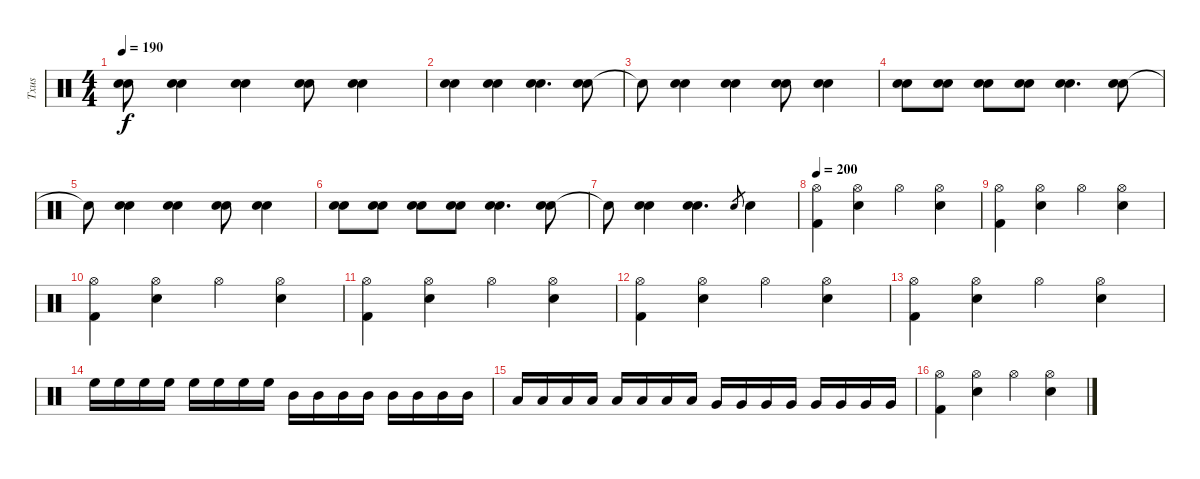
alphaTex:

\track ("Txus" "Txus") {instrument percussion}
\staff
\articulation defaults
\ts (4 4)
\tempo 190
\clef neutral
\ks c
("Snare (hit)"{t} "Snare (hit) 2"{t}).8{dy f} ("Snare (hit) 2" "Snare (hit) 2").4 ("Snare (hit) 2" "Snare (hit) 2").4 ("Snare (hit) 2" "Snare (hit) 2").8 ("Snare (hit) 2" "Snare (hit) 2").4 |
("Snare (hit) 2" "Snare (hit) 2").4 ("Snare (hit) 2" "Snare (hit) 2").4 ("Snare (hit) 2" "Snare (hit) 2").4{d} ("Snare (hit) 2" "Snare (hit) 2").8 |
"Snare (hit) 2"{t}.8 ("Snare (hit) 2" "Snare (hit) 2").4 ("Snare (hit) 2" "Snare (hit) 2").4 ("Snare (hit) 2" "Snare (hit) 2").8 ("Snare (hit) 2" "Snare (hit) 2").4 |
("Snare (hit) 2" "Snare (hit) 2").8 ("Snare (hit) 2" "Snare (hit) 2").8 ("Snare (hit) 2" "Snare (hit) 2").8 ("Snare (hit) 2" "Snare (hit) 2").8 ("Snare (hit) 2" "Snare (hit) 2").4{d} ("Snare (hit) 2" "Snare (hit) 2").8 |
"Snare (hit) 2"{t}.8 ("Snare (hit) 2" "Snare (hit) 2").4 ("Snare (hit) 2" "Snare (hit) 2").4 ("Snare (hit) 2" "Snare (hit) 2").8 ("Snare (hit) 2" "Snare (hit) 2").4 |
("Snare (hit) 2" "Snare (hit) 2").8 ("Snare (hit) 2" "Snare (hit) 2").8 ("Snare (hit) 2" "Snare (hit) 2").8 ("Snare (hit) 2" "Snare (hit) 2").8 ("Snare (hit) 2" "Snare (hit) 2").4{d} ("Snare (hit) 2" "Snare (hit) 2").8 |
"Snare (hit) 2"{t}.8 ("Snare (hit) 2" "Snare (hit) 2").4 ("Snare (hit) 2" "Snare (hit) 2").4{d} "Electric Snare (hit)".8{gr} "Electric Snare (hit)".4 |
\tempo 200
("Kick (hit) 2" "Hi-Hat (open)").4 ("Electric Snare (hit)" "Hi-Hat (open)").4 "Hi-Hat (open)".4 ("Electric Snare (hit)" "Hi-Hat (open)").4 |
("Kick (hit) 2" "Hi-Hat (open)").4 ("Electric Snare (hit)" "Hi-Hat (open)").4 "Hi-Hat (open)".4 ("Electric Snare (hit)" "Hi-Hat (open)").4 |
("Kick (hit) 2" "Hi-Hat (open)").4 ("Electric Snare (hit)" "Hi-Hat (open)").4 "Hi-Hat (open)".4 ("Electric Snare (hit)" "Hi-Hat (open)").4 |
("Kick (hit) 2" "Hi-Hat (open)").4 ("Electric Snare (hit)" "Hi-Hat (open)").4 "Hi-Hat (open)".4 ("Electric Snare (hit)" "Hi-Hat (open)").4 |
("Kick (hit) 2" "Hi-Hat (open)").4 ("Electric Snare (hit)" "Hi-Hat (open)").4 "Hi-Hat (open)".4 ("Electric Snare (hit)" "Hi-Hat (open)").4 |
("Kick (hit) 2" "Hi-Hat (open)").4 ("Electric Snare (hit)" "Hi-Hat (open)").4 "Hi-Hat (open)".4 ("Electric Snare (hit)" "Hi-Hat (open)").4 |
"High Floor Tom (hit)".16 "High Floor Tom (hit)".16 "High Floor Tom (hit)".16 "High Floor Tom (hit)".16 "High Floor Tom (hit)".16 "High Floor Tom (hit)".16 "High Floor Tom (hit)".16 "High Floor Tom (hit)".16 "Mid Tom (hit)".16 "Mid Tom (hit)".16 "Mid Tom (hit)".16 "Mid Tom (hit)".16 "Mid Tom (hit)".16 "Mid Tom (hit)".16 "Mid Tom (hit)".16 "Mid Tom (hit)".16 |
"Low Tom (hit)".16 "Low Tom (hit)".16 "Low Tom (hit)".16 "Low Tom (hit)".16 "Low Tom (hit)".16 "Low Tom (hit)".16 "Low Tom (hit)".16 "Low Tom (hit)".16 "Very Low Tom (hit)".16 "Very Low Tom (hit)".16 "Very Low Tom (hit)".16 "Very Low Tom (hit)".16 "Very Low Tom (hit)".16 "Very Low Tom (hit)".16 "Very Low Tom (hit)".16 "Very Low Tom (hit)".16 |
("Hi-Hat (open)" "Kick (hit) 2").4 ("Hi-Hat (open)" "Electric Snare (hit)").4 "Hi-Hat (open)".4 ("Hi-Hat (open)" "Electric Snare (hit)").4
